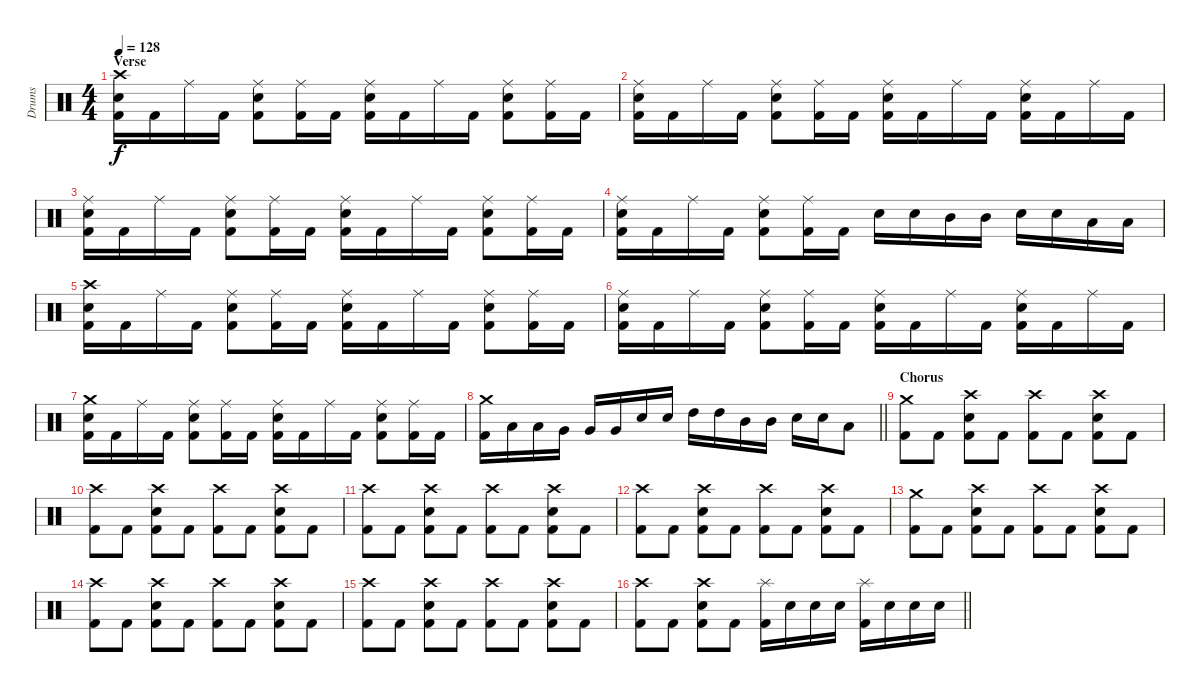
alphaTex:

\track ("Drums" "Drums") {instrument percussion}
\staff {score}
\articulation defaults
\ts (4 4)
\section ("" "Verse")
\tempo 128
\clef neutral
\ks c
("Crash high (hit)" "Electric Snare (hit)" "Kick (hit) 2").16{dy f} "Kick (hit) 2".16 "Ride (middle)".16 "Kick (hit) 2".16 ("Ride (middle)" "Electric Snare (hit)" "Kick (hit) 2").8 ("Ride (middle)" "Kick (hit) 2").16 "Kick (hit) 2".16 ("Ride (middle)" "Electric Snare (hit)" "Kick (hit) 2").16 "Kick (hit) 2".16 "Ride (middle)".16 "Kick (hit) 2".16 ("Ride (middle)" "Electric Snare (hit)" "Kick (hit) 2").8 ("Ride (middle)" "Kick (hit) 2").16 "Kick (hit) 2".16 |
("Ride (middle)" "Electric Snare (hit)" "Kick (hit) 2").16 "Kick (hit) 2".16 "Ride (middle)".16 "Kick (hit) 2".16 ("Ride (middle)" "Electric Snare (hit)" "Kick (hit) 2").8 ("Ride (middle)" "Kick (hit) 2").16 "Kick (hit) 2".16 ("Ride (middle)" "Electric Snare (hit)" "Kick (hit) 2").16 "Kick (hit) 2".16 "Ride (middle)".16 "Kick (hit) 2".16 ("Ride (middle)" "Electric Snare (hit)" "Kick (hit) 2").16 "Kick (hit) 2".16 "Ride (middle)".16 "Kick (hit) 2".16 |
("Ride (middle)" "Electric Snare (hit)" "Kick (hit) 2").16 "Kick (hit) 2".16 "Ride (middle)".16 "Kick (hit) 2".16 ("Ride (middle)" "Electric Snare (hit)" "Kick (hit) 2").8 ("Ride (middle)" "Kick (hit) 2").16 "Kick (hit) 2".16 ("Ride (middle)" "Electric Snare (hit)" "Kick (hit) 2").16 "Kick (hit) 2".16 "Ride (middle)".16 "Kick (hit) 2".16 ("Ride (middle)" "Electric Snare (hit)" "Kick (hit) 2").8 ("Ride (middle)" "Kick (hit) 2").16 "Kick (hit) 2".16 |
("Ride (middle)" "Electric Snare (hit)" "Kick (hit) 2").16 "Kick (hit) 2".16 "Ride (middle)".16 "Kick (hit) 2".16 ("Ride (middle)" "Electric Snare (hit)" "Kick (hit) 2").8 ("Ride (middle)" "Kick (hit) 2").16 "Kick (hit) 2".16 "Electric Snare (hit)".16 "Electric Snare (hit)".16 "Mid Tom (hit)".16 "Mid Tom (hit)".16 "Electric Snare (hit)".16 "Electric Snare (hit)".16 "Low Tom (hit)".16 "Low Tom (hit)".16 |
("Crash high (hit)" "Electric Snare (hit)" "Kick (hit) 2").16 "Kick (hit) 2".16 "Ride (middle)".16 "Kick (hit) 2".16 ("Ride (middle)" "Electric Snare (hit)" "Kick (hit) 2").8 ("Ride (middle)" "Kick (hit) 2").16 "Kick (hit) 2".16 ("Ride (middle)" "Electric Snare (hit)" "Kick (hit) 2").16 "Kick (hit) 2".16 "Ride (middle)".16 "Kick (hit) 2".16 ("Ride (middle)" "Electric Snare (hit)" "Kick (hit) 2").8 ("Ride (middle)" "Kick (hit) 2").16 "Kick (hit) 2".16 |
("Ride (middle)" "Electric Snare (hit)" "Kick (hit) 2").16 "Kick (hit) 2".16 "Ride (middle)".16 "Kick (hit) 2".16 ("Ride (middle)" "Electric Snare (hit)" "Kick (hit) 2").8 ("Ride (middle)" "Kick (hit) 2").16 "Kick (hit) 2".16 ("Ride (middle)" "Electric Snare (hit)" "Kick (hit) 2").16 "Kick (hit) 2".16 "Ride (middle)".16 "Kick (hit) 2".16 ("Ride (middle)" "Electric Snare (hit)" "Kick (hit) 2").16 "Kick (hit) 2".16 "Ride (middle)".16 "Kick (hit) 2".16 |
("Crash medium (hit)" "Electric Snare (hit)" "Kick (hit) 2").16 "Kick (hit) 2".16 "Ride (middle)".16 "Kick (hit) 2".16 ("Ride (middle)" "Electric Snare (hit)" "Kick (hit) 2").8 ("Ride (middle)" "Kick (hit) 2").16 "Kick (hit) 2".16 ("Ride (middle)" "Electric Snare (hit)" "Kick (hit) 2").16 "Kick (hit) 2".16 "Ride (middle)".16 "Kick (hit) 2".16 ("Ride (middle)" "Electric Snare (hit)" "Kick (hit) 2").8 ("Ride (middle)" "Kick (hit) 2").16 "Kick (hit) 2".16 |
\barLineRight lightlight
("Crash medium (hit)" "Kick (hit) 2").16 "Low Tom (hit)".16 "Low Tom (hit)".16 "Very Low Tom (hit)".16 "Very Low Tom (hit)".16 "Very Low Tom (hit)".16 "Electric Snare (hit)".16 "Electric Snare (hit)".16 "High Tom (hit)".16 "High Tom (hit)".16 "Mid Tom (hit)".16 "Mid Tom (hit)".16 "Electric Snare (hit)".16 "Electric Snare (hit)".16 "Low Tom (hit)".8 |
\section ("" "Chorus")
("Crash medium (hit)" "Kick (hit) 2").8 "Kick (hit) 2".8 ("Crash high (hit)" "Electric Snare (hit)" "Kick (hit) 2").8 "Kick (hit) 2".8 ("Crash high (hit)" "Kick (hit) 2").8 "Kick (hit) 2".8 ("Crash high (hit)" "Electric Snare (hit)" "Kick (hit) 2").8 "Kick (hit) 2".8 |
("Crash high (hit)" "Kick (hit) 2").8 "Kick (hit) 2".8 ("Crash high (hit)" "Electric Snare (hit)" "Kick (hit) 2").8 "Kick (hit) 2".8 ("Crash high (hit)" "Kick (hit) 2").8 "Kick (hit) 2".8 ("Crash high (hit)" "Electric Snare (hit)" "Kick (hit) 2").8 "Kick (hit) 2".8 |
("Crash high (hit)" "Kick (hit) 2").8 "Kick (hit) 2".8 ("Crash high (hit)" "Electric Snare (hit)" "Kick (hit) 2").8 "Kick (hit) 2".8 ("Crash high (hit)" "Kick (hit) 2").8 "Kick (hit) 2".8 ("Crash high (hit)" "Electric Snare (hit)" "Kick (hit) 2").8 "Kick (hit) 2".8 |
("Crash high (hit)" "Kick (hit) 2").8 "Kick (hit) 2".8 ("Crash high (hit)" "Electric Snare (hit)" "Kick (hit) 2").8 "Kick (hit) 2".8 ("Crash high (hit)" "Kick (hit) 2").8 "Kick (hit) 2".8 ("Crash high (hit)" "Electric Snare (hit)" "Kick (hit) 2").8 "Kick (hit) 2".8 |
("Crash medium (hit)" "Kick (hit) 2").8 "Kick (hit) 2".8 ("Crash high (hit)" "Electric Snare (hit)" "Kick (hit) 2").8 "Kick (hit) 2".8 ("Crash high (hit)" "Kick (hit) 2").8 "Kick (hit) 2".8 ("Crash high (hit)" "Electric Snare (hit)" "Kick (hit) 2").8 "Kick (hit) 2".8 |
("Crash high (hit)" "Kick (hit) 2").8 "Kick (hit) 2".8 ("Crash high (hit)" "Electric Snare (hit)" "Kick (hit) 2").8 "Kick (hit) 2".8 ("Crash high (hit)" "Kick (hit) 2").8 "Kick (hit) 2".8 ("Crash high (hit)" "Electric Snare (hit)" "Kick (hit) 2").8 "Kick (hit) 2".8 |
("Crash high (hit)" "Kick (hit) 2").8 "Kick (hit) 2".8 ("Crash high (hit)" "Electric Snare (hit)" "Kick (hit) 2").8 "Kick (hit) 2".8 ("Crash high (hit)" "Kick (hit) 2").8 "Kick (hit) 2".8 ("Crash high (hit)" "Electric Snare (hit)" "Kick (hit) 2").8 "Kick (hit) 2".8 |
\barLineRight lightlight
("Crash high (hit)" "Kick (hit) 2").8 "Kick (hit) 2".8 ("Crash high (hit)" "Electric Snare (hit)" "Kick (hit) 2").8 "Kick (hit) 2".8 ("Splash (hit)" "Kick (hit) 2").16 "Electric Snare (hit)".16 "Electric Snare (hit)".16 "Electric Snare (hit)".16 ("Splash (hit)" "Kick (hit) 2").16 "Electric Snare (hit)".16 "Electric Snare (hit)".16 "Electric Snare (hit)".16
